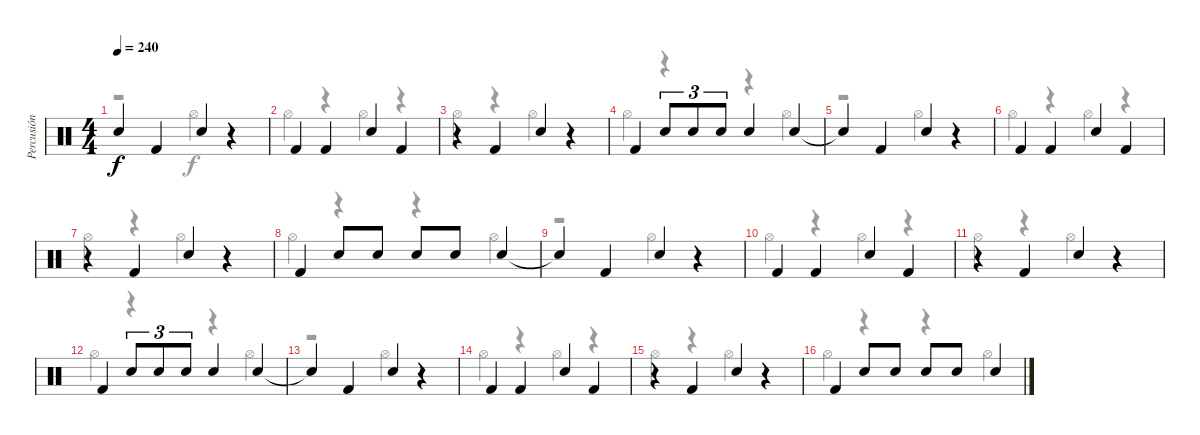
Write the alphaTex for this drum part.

\track ("Percusión" "Percusión") {instrument percussion}
\staff {score}
\articulation defaults
\voice
\ts (4 4)
\tempo 240
\clef neutral
\ks c "Snare (hit)"{t}.4{dy f} "Kick (hit) 2".4 "Electric Snare (hit)".4
r.4 |
"Kick (hit) 2".4 "Kick (hit) 2".4 "Electric Snare (hit)".4 "Kick (hit) 2".4 |
r.4 "Kick (hit) 2".4 "Electric Snare (hit)".4 r.4 |
"Kick (hit) 2".4 "Electric Snare (hit)".8{tu (3 2)} "Electric Snare (hit)".8{tu (3 2)} "Electric Snare (hit)".8{tu (3 2)} "Electric Snare (hit)".4 "Electric Snare (hit)".4 |
"Snare (hit)"{t}.4 "Kick (hit) 2".4 "Electric Snare (hit)".4 r.4 |
"Kick (hit) 2".4 "Kick (hit) 2".4 "Electric Snare (hit)".4 "Kick (hit) 2".4 |
r.4 "Kick (hit) 2".4 "Electric Snare (hit)".4 r.4 |
"Kick (hit) 2".4 "Electric Snare (hit)".8 "Electric Snare (hit)".8 "Electric Snare (hit)".8 "Electric Snare (hit)".8 "Electric Snare (hit)".4 |
"Snare (hit)"{t}.4 "Kick (hit) 2".4 "Electric Snare (hit)".4 r.4 |
"Kick (hit) 2".4 "Kick (hit) 2".4 "Electric Snare (hit)".4 "Kick (hit) 2".4 |
r.4 "Kick (hit) 2".4 "Electric Snare (hit)".4 r.4 |
"Kick (hit) 2".4 "Electric Snare (hit)".8{tu (3 2)} "Electric Snare (hit)".8{tu (3 2)} "Electric Snare (hit)".8{tu (3 2)} "Electric Snare (hit)".4 "Electric Snare (hit)".4 |
"Snare (hit)"{t}.4 "Kick (hit) 2".4 "Electric Snare (hit)".4 r.4 |
"Kick (hit) 2".4 "Kick (hit) 2".4 "Electric Snare (hit)".4 "Kick (hit) 2".4 |
r.4 "Kick (hit) 2".4 "Electric Snare (hit)".4 r.4 |
"Kick (hit) 2".4 "Electric Snare (hit)".8 "Electric Snare (hit)".8 "Electric Snare (hit)".8 "Electric Snare (hit)".8 "Electric Snare (hit)".4
\voice
\clef neutral
\ottava regular
\simile none
\ks c
r.2{dy f} "Hi-Hat (open)".4 r.4 |
"Hi-Hat (open)".4 r.4 "Hi-Hat (open)".4 r.4 |
"Hi-Hat (open)".4 r.4 "Hi-Hat (open)".4 r.4 |
"Hi-Hat (open)".4 r.4 r.4 "Hi-Hat (open)".4 |
r.2 "Hi-Hat (open)".4 r.4 |
"Hi-Hat (open)".4 r.4 "Hi-Hat (open)".4 r.4 |
"Hi-Hat (open)".4 r.4 "Hi-Hat (open)".4 r.4 |
"Hi-Hat (open)".4 r.4 r.4 "Hi-Hat (open)".4 |
r.2 "Hi-Hat (open)".4 r.4 |
"Hi-Hat (open)".4 r.4 "Hi-Hat (open)".4 r.4 |
"Hi-Hat (open)".4 r.4 "Hi-Hat (open)".4 r.4 |
"Hi-Hat (open)".4 r.4 r.4 "Hi-Hat (open)".4 |
r.2 "Hi-Hat (open)".4 r.4 |
"Hi-Hat (open)".4 r.4 "Hi-Hat (open)".4 r.4 |
"Hi-Hat (open)".4 r.4 "Hi-Hat (open)".4 r.4 |
"Hi-Hat (open)".4 r.4 r.4 "Hi-Hat (open)".4
